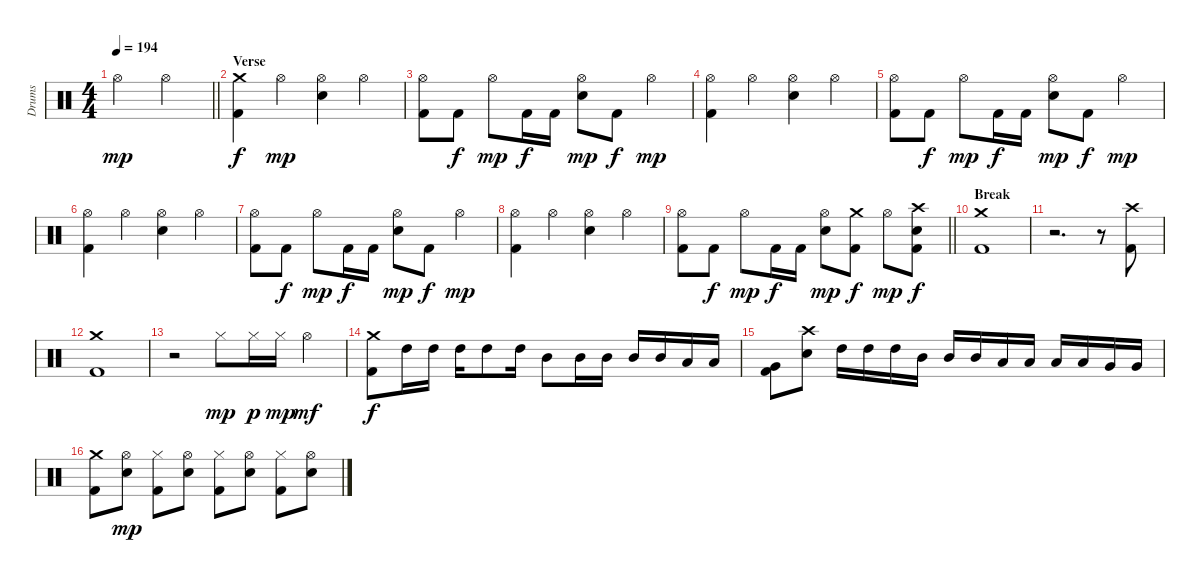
\track ("Drums" "Drums") {instrument percussion}
\staff {score}
\articulation defaults
\ts (4 4)
\tempo 194
\clef neutral
\barLineRight lightlight
\ks c "Hi-Hat (open)".2{dy mp} "Hi-Hat (open)".2
|
\section ("" "Verse")
("Crash medium (hit)" "Kick (hit) 2").4{dy f} "Hi-Hat (open)".4{dy mp} ("Hi-Hat (open)" "Snare (hit) 2").4 "Hi-Hat (open)".4 |
("Hi-Hat (open)" "Kick (hit) 2").8 "Kick (hit) 2".8{dy f} "Hi-Hat (open)".8{dy mp} "Kick (hit) 2".16{dy f} "Kick (hit) 2".16 ("Hi-Hat (open)" "Snare (hit) 2").8{dy mp} "Kick (hit) 2".8{dy f} "Hi-Hat (open)".4{dy mp} |
("Hi-Hat (open)" "Kick (hit) 2").4 "Hi-Hat (open)".4 ("Hi-Hat (open)" "Snare (hit) 2").4 "Hi-Hat (open)".4 |
("Hi-Hat (open)" "Kick (hit) 2").8 "Kick (hit) 2".8{dy f} "Hi-Hat (open)".8{dy mp} "Kick (hit) 2".16{dy f} "Kick (hit) 2".16 ("Hi-Hat (open)" "Snare (hit) 2").8{dy mp} "Kick (hit) 2".8{dy f} "Hi-Hat (open)".4{dy mp} |
("Hi-Hat (open)" "Kick (hit) 2").4 "Hi-Hat (open)".4 ("Hi-Hat (open)" "Snare (hit) 2").4 "Hi-Hat (open)".4 |
("Hi-Hat (open)" "Kick (hit) 2").8 "Kick (hit) 2".8{dy f} "Hi-Hat (open)".8{dy mp} "Kick (hit) 2".16{dy f} "Kick (hit) 2".16 ("Hi-Hat (open)" "Snare (hit) 2").8{dy mp} "Kick (hit) 2".8{dy f} "Hi-Hat (open)".4{dy mp} |
("Hi-Hat (open)" "Kick (hit) 2").4 "Hi-Hat (open)".4 ("Hi-Hat (open)" "Snare (hit) 2").4 "Hi-Hat (open)".4 |
\barLineRight lightlight
("Hi-Hat (open)" "Kick (hit) 2").8 "Kick (hit) 2".8{dy f} "Hi-Hat (open)".8{dy mp} "Kick (hit) 2".16{dy f} "Kick (hit) 2".16 ("Hi-Hat (open)" "Snare (hit) 2").8{dy mp} ("Crash medium (hit)" "Kick (hit) 2").8{dy f} "Hi-Hat (open)".8{dy mp} ("Crash high (hit)" "Snare (hit) 2" "Kick (hit) 2").8{dy f} |
\section ("" "Break")
("Crash medium (hit)" "Kick (hit) 2").1 |
r.2{d} r.8 ("Crash high (hit)" "Kick (hit) 2").8 |
("Crash medium (hit)" "Kick (hit) 2").1 |
r.2 "Hi-Hat (closed)".8{dy mp} "Hi-Hat (closed)".16{dy p} "Hi-Hat (closed)".16{dy mp} "Hi-Hat (open)".4{dy mf} |
("Crash medium (hit)" "Kick (hit) 2").8{dy f} "High Tom (hit)".16 "High Tom (hit)".16 "High Tom (hit)".16 "High Tom (hit)".8 "High Tom (hit)".16 "Mid Tom (hit)".8 "Mid Tom (hit)".16 "Mid Tom (hit)".16 "Mid Tom (hit)".16 "Mid Tom (hit)".16 "Low Tom (hit)".16 "Low Tom (hit)".16 |
("Very Low Tom (hit)" "Kick (hit) 2").8 ("Crash high (hit)" "Snare (hit) 2").8 "High Tom (hit)".16 "High Tom (hit)".16 "High Tom (hit)".16 "Mid Tom (hit)".16 "Mid Tom (hit)".16 "Mid Tom (hit)".16 "Low Tom (hit)".16 "Low Tom (hit)".16 "Low Tom (hit)".16 "Low Tom (hit)".16 "Very Low Tom (hit)".16 "Very Low Tom (hit)".16 |
("Crash medium (hit)" "Kick (hit) 2").8 ("Hi-Hat (open)" "Snare (hit) 2").8{dy mp} ("Hi-Hat (closed)" "Kick (hit) 2").8 ("Hi-Hat (open)" "Snare (hit) 2").8 ("Hi-Hat (closed)" "Kick (hit) 2").8 ("Hi-Hat (open)" "Snare (hit) 2").8 ("Hi-Hat (closed)" "Kick (hit) 2").8 ("Hi-Hat (open)" "Snare (hit) 2").8
